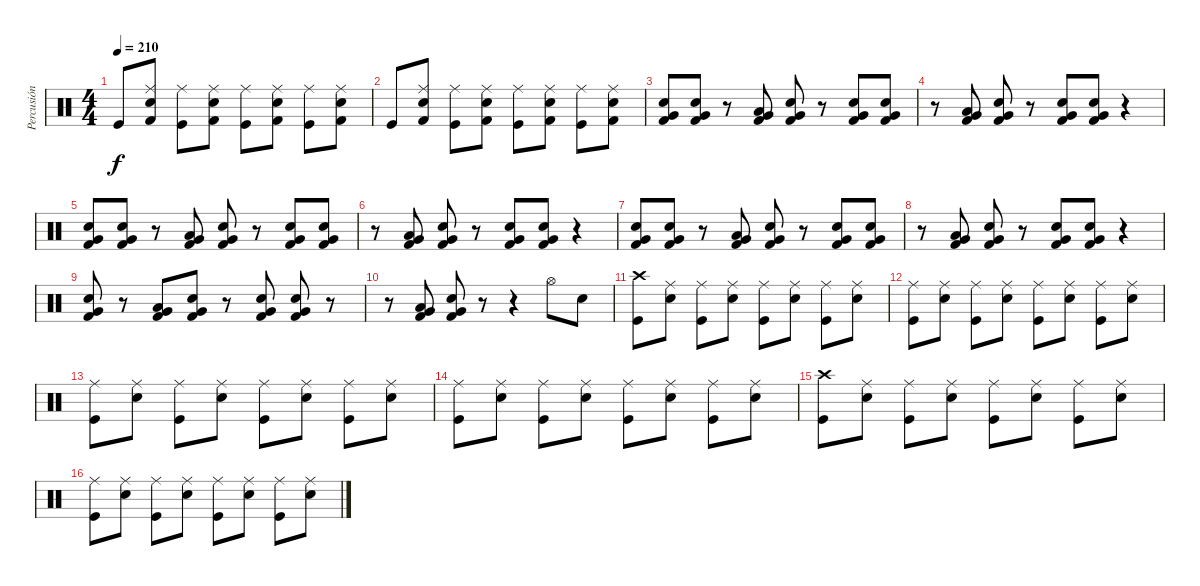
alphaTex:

\track ("Percusión" "Percusión") {instrument percussion}
\staff {score}
\articulation defaults
\ts (4 4)
\tempo 210
\clef neutral
\ks c "Kick (hit)".8{dy f}
("Kick (hit) 2" "Ride (middle)" "Snare (hit) 2").8 ("Ride (middle)" "Kick (hit)").8 ("Kick (hit) 2" "Ride (middle)" "Snare (hit) 2").8 ("Ride (middle)" "Kick (hit)").8 ("Kick (hit) 2" "Ride (middle)" "Snare (hit) 2").8 ("Ride (middle)" "Kick (hit)").8 ("Kick (hit) 2" "Ride (middle)" "Snare (hit) 2").8 |
"Kick (hit)".8 ("Kick (hit) 2" "Ride (middle)" "Snare (hit) 2").8 ("Ride (middle)" "Kick (hit)").8 ("Kick (hit) 2" "Ride (middle)" "Snare (hit) 2").8 ("Ride (middle)" "Kick (hit)").8 ("Kick (hit) 2" "Ride (middle)" "Snare (hit) 2").8 ("Ride (middle)" "Kick (hit)").8 ("Kick (hit) 2" "Ride (middle)" "Snare (hit) 2").8 |
("Kick (hit) 2" "Very Low Tom (hit)" "Electric Snare (hit)").8 ("Kick (hit) 2" "Very Low Tom (hit)" "Electric Snare (hit)").8 r.8 ("Very Low Tom (hit)" "Low Floor Tom (hit)" "Kick (hit) 2").8 ("Kick (hit) 2" "Very Low Tom (hit)" "Electric Snare (hit)").8 r.8 ("Kick (hit) 2" "Very Low Tom (hit)" "Electric Snare (hit)").8 ("Kick (hit) 2" "Very Low Tom (hit)" "Electric Snare (hit)").8 |
r.8 ("Very Low Tom (hit)" "Low Floor Tom (hit)" "Kick (hit) 2").8 ("Kick (hit) 2" "Very Low Tom (hit)" "Electric Snare (hit)").8 r.8 ("Kick (hit) 2" "Very Low Tom (hit)" "Electric Snare (hit)").8 ("Kick (hit) 2" "Very Low Tom (hit)" "Electric Snare (hit)").8 r.4 |
("Kick (hit) 2" "Very Low Tom (hit)" "Electric Snare (hit)").8 ("Kick (hit) 2" "Very Low Tom (hit)" "Electric Snare (hit)").8 r.8 ("Very Low Tom (hit)" "Low Floor Tom (hit)" "Kick (hit) 2").8 ("Kick (hit) 2" "Very Low Tom (hit)" "Electric Snare (hit)").8 r.8 ("Kick (hit) 2" "Very Low Tom (hit)" "Electric Snare (hit)").8 ("Kick (hit) 2" "Very Low Tom (hit)" "Electric Snare (hit)").8 |
r.8 ("Very Low Tom (hit)" "Low Floor Tom (hit)" "Kick (hit) 2").8 ("Kick (hit) 2" "Very Low Tom (hit)" "Electric Snare (hit)").8 r.8 ("Kick (hit) 2" "Very Low Tom (hit)" "Electric Snare (hit)").8 ("Kick (hit) 2" "Very Low Tom (hit)" "Electric Snare (hit)").8 r.4 |
("Kick (hit) 2" "Very Low Tom (hit)" "Electric Snare (hit)").8 ("Kick (hit) 2" "Very Low Tom (hit)" "Electric Snare (hit)").8 r.8 ("Very Low Tom (hit)" "Low Floor Tom (hit)" "Kick (hit) 2").8 ("Kick (hit) 2" "Very Low Tom (hit)" "Electric Snare (hit)").8 r.8 ("Kick (hit) 2" "Very Low Tom (hit)" "Electric Snare (hit)").8 ("Kick (hit) 2" "Very Low Tom (hit)" "Electric Snare (hit)").8 |
r.8 ("Very Low Tom (hit)" "Low Floor Tom (hit)" "Kick (hit) 2").8 ("Kick (hit) 2" "Very Low Tom (hit)" "Electric Snare (hit)").8 r.8 ("Kick (hit) 2" "Very Low Tom (hit)" "Electric Snare (hit)").8 ("Kick (hit) 2" "Very Low Tom (hit)" "Electric Snare (hit)").8 r.4 |
("Kick (hit) 2" "Very Low Tom (hit)" "Electric Snare (hit)").8 r.8 ("Very Low Tom (hit)" "Low Floor Tom (hit)" "Kick (hit) 2").8 ("Kick (hit) 2" "Very Low Tom (hit)" "Electric Snare (hit)").8 r.8 ("Kick (hit) 2" "Very Low Tom (hit)" "Electric Snare (hit)").8 ("Kick (hit) 2" "Very Low Tom (hit)" "Electric Snare (hit)").8 r.8 |
r.8 ("Very Low Tom (hit)" "Low Floor Tom (hit)" "Kick (hit) 2").8 ("Kick (hit) 2" "Very Low Tom (hit)" "Electric Snare (hit)").8 r.8 r.4 "Hi-Hat (open)".8 "Electric Snare (hit)".8 |
("Crash high (hit)" "Kick (hit)").8 ("Ride (middle)" "Snare (hit) 2").8 ("Ride (middle)" "Kick (hit)").8 ("Ride (middle)" "Snare (hit) 2").8 ("Ride (middle)" "Kick (hit)").8 ("Ride (middle)" "Snare (hit) 2").8 ("Ride (middle)" "Kick (hit)").8 ("Ride (middle)" "Snare (hit) 2").8 |
("Ride (middle)" "Kick (hit)").8 ("Ride (middle)" "Snare (hit) 2").8 ("Ride (middle)" "Kick (hit)").8 ("Ride (middle)" "Snare (hit) 2").8 ("Ride (middle)" "Kick (hit)").8 ("Ride (middle)" "Snare (hit) 2").8 ("Ride (middle)" "Kick (hit)").8 ("Ride (middle)" "Snare (hit) 2").8 |
("Ride (middle)" "Kick (hit)").8 ("Ride (middle)" "Snare (hit) 2").8 ("Ride (middle)" "Kick (hit)").8 ("Ride (middle)" "Snare (hit) 2").8 ("Ride (middle)" "Kick (hit)").8 ("Ride (middle)" "Snare (hit) 2").8 ("Ride (middle)" "Kick (hit)").8 ("Ride (middle)" "Snare (hit) 2").8 |
("Ride (middle)" "Kick (hit)").8 ("Ride (middle)" "Snare (hit) 2").8 ("Ride (middle)" "Kick (hit)").8 ("Ride (middle)" "Snare (hit) 2").8 ("Ride (middle)" "Kick (hit)").8 ("Ride (middle)" "Snare (hit) 2").8 ("Ride (middle)" "Kick (hit)").8 ("Ride (middle)" "Snare (hit) 2").8 |
("Crash high (hit)" "Kick (hit)").8 ("Ride (middle)" "Snare (hit) 2").8 ("Ride (middle)" "Kick (hit)").8 ("Ride (middle)" "Snare (hit) 2").8 ("Ride (middle)" "Kick (hit)").8 ("Ride (middle)" "Snare (hit) 2").8 ("Ride (middle)" "Kick (hit)").8 ("Ride (middle)" "Snare (hit) 2").8 |
("Ride (middle)" "Kick (hit)").8 ("Ride (middle)" "Snare (hit) 2").8 ("Ride (middle)" "Kick (hit)").8 ("Ride (middle)" "Snare (hit) 2").8 ("Ride (middle)" "Kick (hit)").8 ("Ride (middle)" "Snare (hit) 2").8 ("Ride (middle)" "Kick (hit)").8 ("Ride (middle)" "Snare (hit) 2").8
